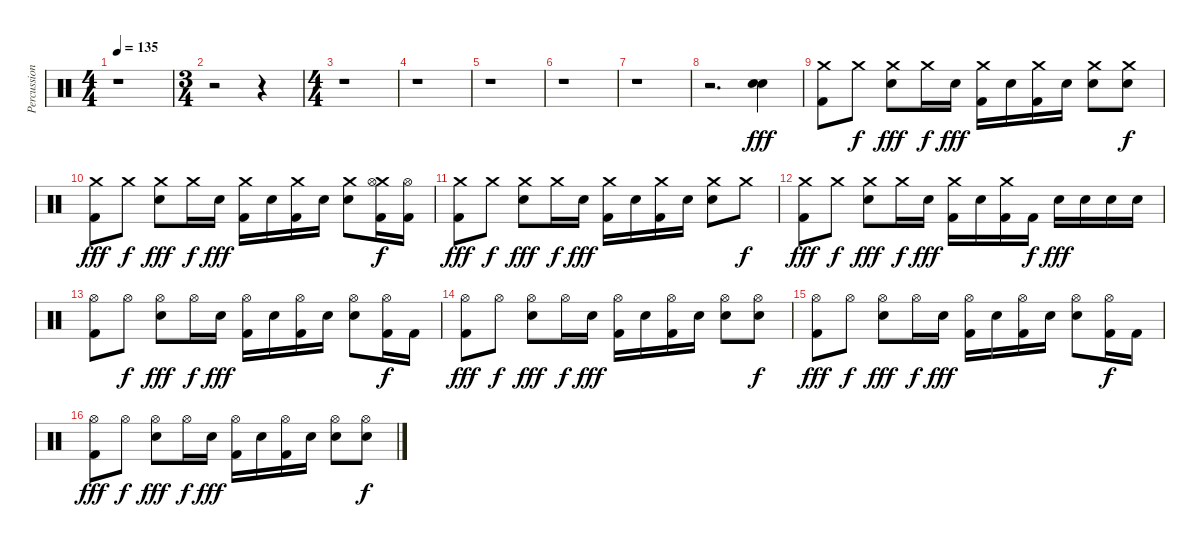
\track ("Percussions" "Percussion") {instrument percussion}
\staff {score}
\articulation defaults
\ts (4 4)
\tempo 135
\clef neutral
\ks c
r.1{dy fff} |
\ts (3 4)
r.2 r.4 |
\ts (4 4)
r.1 |
r.1 |
r.1 |
r.1 |
r.1 |
r.2{d} ("Electric Snare (hit)" "Electric Snare (hit)").4 |
("Crash medium (hit)" "Kick (hit) 2").8 "Crash medium (hit)".8{dy f} ("Crash medium (hit)" "Electric Snare (hit)").8{dy fff} "Crash medium (hit)".16{dy f} "Electric Snare (hit)".16{dy fff} ("Crash medium (hit)" "Kick (hit) 2").16 "Electric Snare (hit)".16 ("Crash medium (hit)" "Kick (hit) 2").16 "Electric Snare (hit)".16 ("Crash medium (hit)" "Electric Snare (hit)").8 ("Crash medium (hit)" "Electric Snare (hit)").8{dy f} |
("Crash medium (hit)" "Kick (hit) 2").8{dy fff} "Crash medium (hit)".8{dy f} ("Crash medium (hit)" "Electric Snare (hit)").8{dy fff} "Crash medium (hit)".16{dy f} "Electric Snare (hit)".16{dy fff} ("Crash medium (hit)" "Kick (hit) 2").16 "Electric Snare (hit)".16 ("Crash medium (hit)" "Kick (hit) 2").16 "Electric Snare (hit)".16 ("Crash medium (hit)" "Electric Snare (hit)").8 ("Crash medium (hit)" "Hi-Hat (open)" "Kick (hit) 2").16{dy f} ("Hi-Hat (open)" "Kick (hit) 2").16 |
("Crash medium (hit)" "Kick (hit) 2").8{dy fff} "Crash medium (hit)".8{dy f} ("Crash medium (hit)" "Electric Snare (hit)").8{dy fff} "Crash medium (hit)".16{dy f} "Electric Snare (hit)".16{dy fff} ("Crash medium (hit)" "Kick (hit) 2").16 "Electric Snare (hit)".16 ("Crash medium (hit)" "Kick (hit) 2").16 "Electric Snare (hit)".16 ("Crash medium (hit)" "Electric Snare (hit)").8 "Crash medium (hit)".8{dy f} |
("Crash medium (hit)" "Kick (hit) 2").8{dy fff} "Crash medium (hit)".8{dy f} ("Crash medium (hit)" "Electric Snare (hit)").8{dy fff} "Crash medium (hit)".16{dy f} "Electric Snare (hit)".16{dy fff} ("Crash medium (hit)" "Kick (hit) 2").16 "Electric Snare (hit)".16 ("Crash medium (hit)" "Kick (hit) 2").16 "Kick (hit) 2".16{dy f} "Electric Snare (hit)".16{dy fff} "Electric Snare (hit)".16 "Electric Snare (hit)".16 "Electric Snare (hit)".16 |
("Hi-Hat (open)" "Kick (hit) 2").8 "Hi-Hat (open)".8{dy f} ("Hi-Hat (open)" "Electric Snare (hit)").8{dy fff} "Hi-Hat (open)".16{dy f} "Electric Snare (hit)".16{dy fff} ("Hi-Hat (open)" "Kick (hit) 2").16 "Electric Snare (hit)".16 ("Hi-Hat (open)" "Kick (hit) 2").16 "Electric Snare (hit)".16 ("Hi-Hat (open)" "Electric Snare (hit)").8 ("Hi-Hat (open)" "Kick (hit) 2").16{dy f} "Kick (hit) 2".16 |
("Hi-Hat (open)" "Kick (hit) 2").8{dy fff} "Hi-Hat (open)".8{dy f} ("Hi-Hat (open)" "Electric Snare (hit)").8{dy fff} "Hi-Hat (open)".16{dy f} "Electric Snare (hit)".16{dy fff} ("Hi-Hat (open)" "Kick (hit) 2").16 "Electric Snare (hit)".16 ("Hi-Hat (open)" "Kick (hit) 2").16 "Electric Snare (hit)".16 ("Hi-Hat (open)" "Electric Snare (hit)").8 ("Hi-Hat (open)" "Electric Snare (hit)").8{dy f} |
("Hi-Hat (open)" "Kick (hit) 2").8{dy fff} "Hi-Hat (open)".8{dy f} ("Hi-Hat (open)" "Electric Snare (hit)").8{dy fff} "Hi-Hat (open)".16{dy f} "Electric Snare (hit)".16{dy fff} ("Hi-Hat (open)" "Kick (hit) 2").16 "Electric Snare (hit)".16 ("Hi-Hat (open)" "Kick (hit) 2").16 "Electric Snare (hit)".16 ("Hi-Hat (open)" "Electric Snare (hit)").8 ("Hi-Hat (open)" "Kick (hit) 2").16{dy f} "Kick (hit) 2".16 |
("Hi-Hat (open)" "Kick (hit) 2").8{dy fff} "Hi-Hat (open)".8{dy f} ("Hi-Hat (open)" "Electric Snare (hit)").8{dy fff} "Hi-Hat (open)".16{dy f} "Electric Snare (hit)".16{dy fff} ("Hi-Hat (open)" "Kick (hit) 2").16 "Electric Snare (hit)".16 ("Hi-Hat (open)" "Kick (hit) 2").16 "Electric Snare (hit)".16 ("Hi-Hat (open)" "Electric Snare (hit)").8 ("Hi-Hat (open)" "Electric Snare (hit)").8{dy f}
